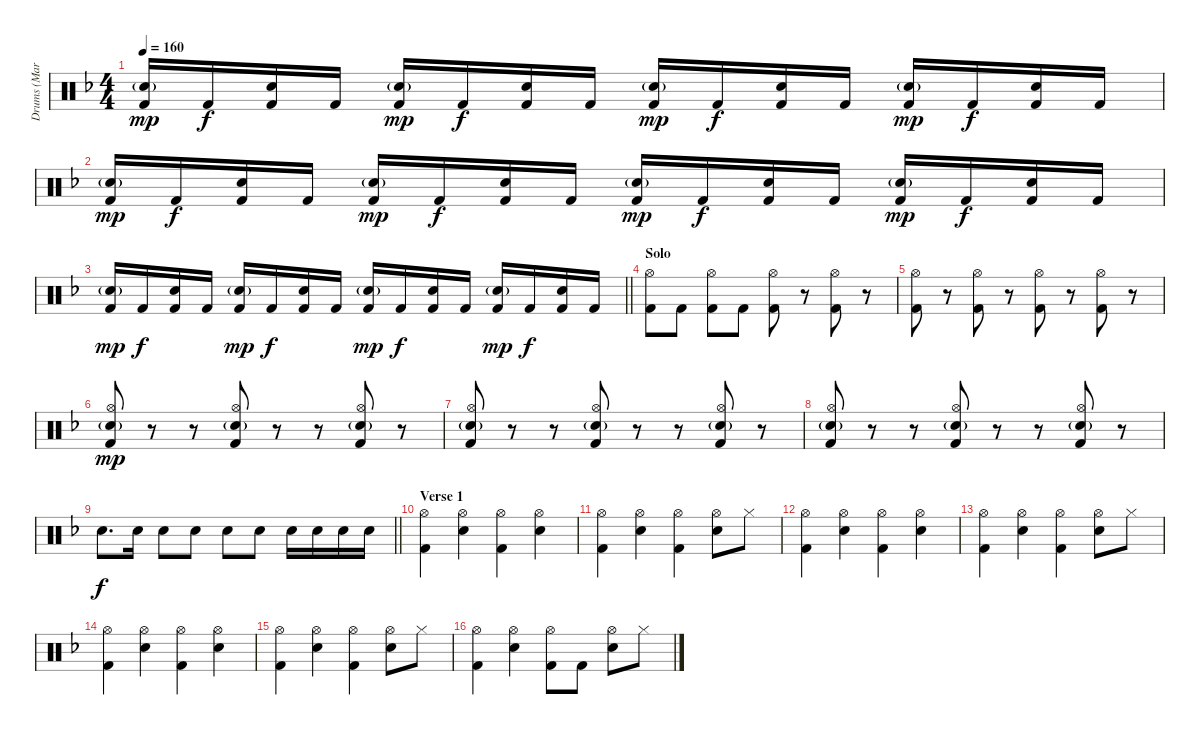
\track ("Drums (Mark)" "Drums (Mar") {instrument percussion}
\staff {score}
\articulation defaults
\ts (4 4)
\tempo 160
\clef neutral
\ks dminor
("Electric Snare (hit)"{g} "Kick (hit) 2").16{dy mp} "Kick (hit) 2".16{dy f} ("Electric Snare (hit)" "Kick (hit) 2").16 "Kick (hit) 2".16 ("Electric Snare (hit)"{g} "Kick (hit) 2").16{dy mp} "Kick (hit) 2".16{dy f} ("Electric Snare (hit)" "Kick (hit) 2").16 "Kick (hit) 2".16 ("Electric Snare (hit)"{g} "Kick (hit) 2").16{dy mp} "Kick (hit) 2".16{dy f} ("Electric Snare (hit)" "Kick (hit) 2").16 "Kick (hit) 2".16 ("Electric Snare (hit)"{g} "Kick (hit) 2").16{dy mp} "Kick (hit) 2".16{dy f} ("Electric Snare (hit)" "Kick (hit) 2").16 "Kick (hit) 2".16 |
("Electric Snare (hit)"{g} "Kick (hit) 2").16{dy mp} "Kick (hit) 2".16{dy f} ("Electric Snare (hit)" "Kick (hit) 2").16 "Kick (hit) 2".16 ("Electric Snare (hit)"{g} "Kick (hit) 2").16{dy mp} "Kick (hit) 2".16{dy f} ("Electric Snare (hit)" "Kick (hit) 2").16 "Kick (hit) 2".16 ("Electric Snare (hit)"{g} "Kick (hit) 2").16{dy mp} "Kick (hit) 2".16{dy f} ("Electric Snare (hit)" "Kick (hit) 2").16 "Kick (hit) 2".16 ("Electric Snare (hit)"{g} "Kick (hit) 2").16{dy mp} "Kick (hit) 2".16{dy f} ("Electric Snare (hit)" "Kick (hit) 2").16 "Kick (hit) 2".16 |
\barLineRight lightlight
("Electric Snare (hit)"{g} "Kick (hit) 2").16{dy mp} "Kick (hit) 2".16{dy f} ("Electric Snare (hit)" "Kick (hit) 2").16 "Kick (hit) 2".16 ("Electric Snare (hit)"{g} "Kick (hit) 2").16{dy mp} "Kick (hit) 2".16{dy f} ("Electric Snare (hit)" "Kick (hit) 2").16 "Kick (hit) 2".16 ("Electric Snare (hit)"{g} "Kick (hit) 2").16{dy mp} "Kick (hit) 2".16{dy f} ("Electric Snare (hit)" "Kick (hit) 2").16 "Kick (hit) 2".16 ("Electric Snare (hit)"{g} "Kick (hit) 2").16{dy mp} "Kick (hit) 2".16{dy f} ("Electric Snare (hit)" "Kick (hit) 2").16 "Kick (hit) 2".16 |
\section ("" "Solo")
("Hi-Hat (open)" "Kick (hit) 2").8 "Kick (hit) 2".8 ("Hi-Hat (open)" "Kick (hit) 2").8 "Kick (hit) 2".8 ("Hi-Hat (open)" "Kick (hit) 2").8 r.8 ("Hi-Hat (open)" "Kick (hit) 2").8 r.8 |
("Hi-Hat (open)" "Kick (hit) 2").8 r.8 ("Hi-Hat (open)" "Kick (hit) 2").8 r.8 ("Hi-Hat (open)" "Kick (hit) 2").8 r.8 ("Hi-Hat (open)" "Kick (hit) 2").8 r.8 |
("Hi-Hat (open)" "Snare (hit) 2"{g} "Kick (hit) 2").8{dy mp} r.8 r.8 ("Hi-Hat (open)" "Snare (hit) 2"{g} "Kick (hit) 2").8 r.8 r.8 ("Hi-Hat (open)" "Snare (hit) 2"{g} "Kick (hit) 2").8 r.8 |
("Hi-Hat (open)" "Snare (hit) 2"{g} "Kick (hit) 2").8 r.8 r.8 ("Hi-Hat (open)" "Snare (hit) 2"{g} "Kick (hit) 2").8 r.8 r.8 ("Hi-Hat (open)" "Snare (hit) 2"{g} "Kick (hit) 2").8 r.8 |
("Hi-Hat (open)" "Snare (hit) 2"{g} "Kick (hit) 2").8 r.8 r.8 ("Hi-Hat (open)" "Snare (hit) 2"{g} "Kick (hit) 2").8 r.8 r.8 ("Hi-Hat (open)" "Snare (hit) 2"{g} "Kick (hit) 2").8 r.8 |
\barLineRight lightlight "Snare (hit) 2".8{d dy f} "Snare (hit) 2".16 "Snare (hit) 2".8 "Snare (hit) 2".8 "Snare (hit) 2".8 "Snare (hit) 2".8 "Snare (hit) 2".16 "Snare (hit) 2".16 "Snare (hit) 2".16 "Snare (hit) 2".16
|
\section ("" "Verse 1")
("Hi-Hat (open)" "Kick (hit) 2").4 ("Hi-Hat (open)" "Electric Snare (hit)").4 ("Hi-Hat (open)" "Kick (hit) 2").4 ("Hi-Hat (open)" "Electric Snare (hit)").4 |
("Hi-Hat (open)" "Kick (hit) 2").4 ("Hi-Hat (open)" "Electric Snare (hit)").4 ("Hi-Hat (open)" "Kick (hit) 2").4 ("Hi-Hat (open)" "Electric Snare (hit)").8 "Hi-Hat (closed)".8 |
("Hi-Hat (open)" "Kick (hit) 2").4 ("Hi-Hat (open)" "Electric Snare (hit)").4 ("Hi-Hat (open)" "Kick (hit) 2").4 ("Hi-Hat (open)" "Electric Snare (hit)").4 |
("Hi-Hat (open)" "Kick (hit) 2").4 ("Hi-Hat (open)" "Electric Snare (hit)").4 ("Hi-Hat (open)" "Kick (hit) 2").4 ("Hi-Hat (open)" "Electric Snare (hit)").8 "Hi-Hat (closed)".8 |
("Hi-Hat (open)" "Kick (hit) 2").4 ("Hi-Hat (open)" "Electric Snare (hit)").4 ("Hi-Hat (open)" "Kick (hit) 2").4 ("Hi-Hat (open)" "Electric Snare (hit)").4 |
("Hi-Hat (open)" "Kick (hit) 2").4 ("Hi-Hat (open)" "Electric Snare (hit)").4 ("Hi-Hat (open)" "Kick (hit) 2").4 ("Hi-Hat (open)" "Electric Snare (hit)").8 "Hi-Hat (closed)".8 |
("Hi-Hat (open)" "Kick (hit) 2").4 ("Hi-Hat (open)" "Electric Snare (hit)").4 ("Hi-Hat (open)" "Kick (hit) 2").8 "Kick (hit) 2".8 ("Hi-Hat (open)" "Electric Snare (hit)").8 "Hi-Hat (closed)".8
